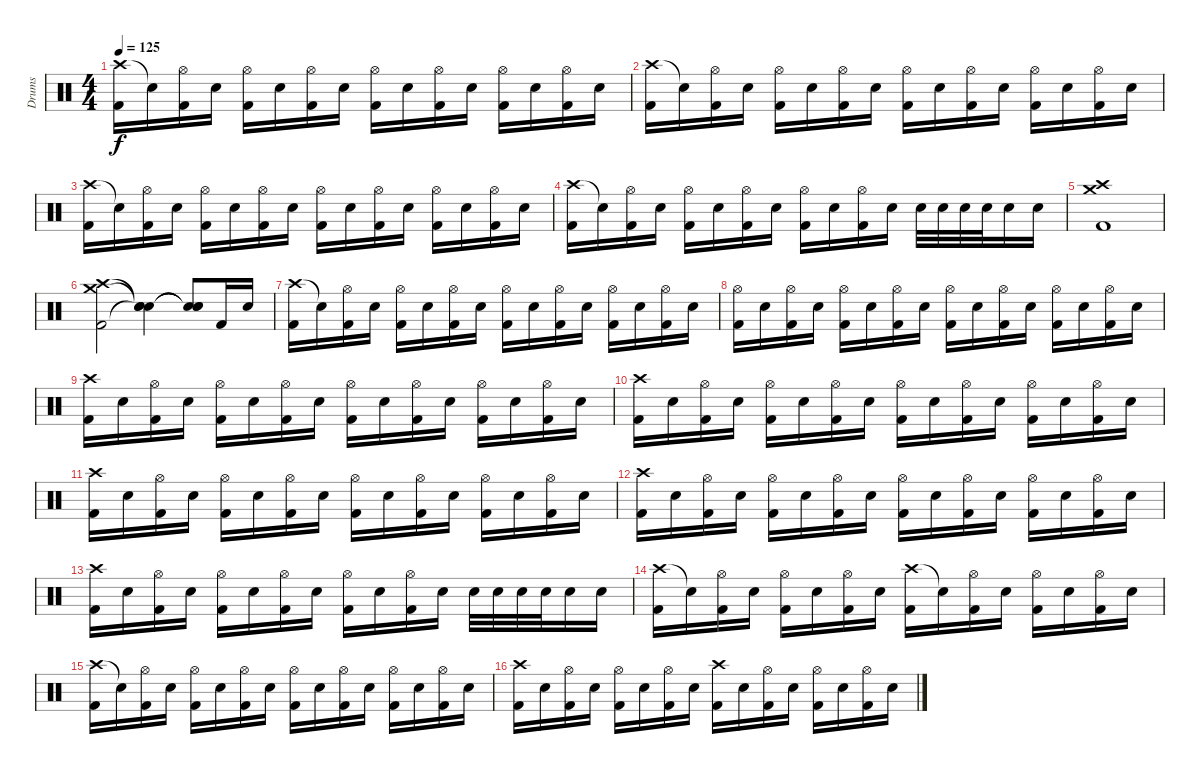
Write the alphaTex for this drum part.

\track ("Drums" "Drums") {instrument percussion}
\staff {score}
\articulation defaults
\ts (4 4)
\tempo 125
\clef neutral
\ks c
("Crash high (hit)" "Kick (hit) 2").16{dy f} "Snare (hit)"{t}.16 ("Hi-Hat (open)" "Kick (hit) 2").16 "Electric Snare (hit)".16 ("Hi-Hat (open)" "Kick (hit) 2").16 "Electric Snare (hit)".16 ("Hi-Hat (open)" "Kick (hit) 2").16 "Electric Snare (hit)".16 ("Hi-Hat (open)" "Kick (hit) 2").16 "Electric Snare (hit)".16 ("Hi-Hat (open)" "Kick (hit) 2").16 "Electric Snare (hit)".16 ("Hi-Hat (open)" "Kick (hit) 2").16 "Electric Snare (hit)".16 ("Hi-Hat (open)" "Kick (hit) 2").16 "Electric Snare (hit)".16 |
("Crash high (hit)" "Kick (hit) 2").16 "Snare (hit)"{t}.16 ("Hi-Hat (open)" "Kick (hit) 2").16 "Electric Snare (hit)".16 ("Hi-Hat (open)" "Kick (hit) 2").16 "Electric Snare (hit)".16 ("Hi-Hat (open)" "Kick (hit) 2").16 "Electric Snare (hit)".16 ("Hi-Hat (open)" "Kick (hit) 2").16 "Electric Snare (hit)".16 ("Hi-Hat (open)" "Kick (hit) 2").16 "Electric Snare (hit)".16 ("Hi-Hat (open)" "Kick (hit) 2").16 "Electric Snare (hit)".16 ("Hi-Hat (open)" "Kick (hit) 2").16 "Electric Snare (hit)".16 |
("Crash high (hit)" "Kick (hit) 2").16 "Snare (hit)"{t}.16 ("Hi-Hat (open)" "Kick (hit) 2").16 "Electric Snare (hit)".16 ("Hi-Hat (open)" "Kick (hit) 2").16 "Electric Snare (hit)".16 ("Hi-Hat (open)" "Kick (hit) 2").16 "Electric Snare (hit)".16 ("Hi-Hat (open)" "Kick (hit) 2").16 "Electric Snare (hit)".16 ("Hi-Hat (open)" "Kick (hit) 2").16 "Electric Snare (hit)".16 ("Hi-Hat (open)" "Kick (hit) 2").16 "Electric Snare (hit)".16 ("Hi-Hat (open)" "Kick (hit) 2").16 "Electric Snare (hit)".16 |
("Crash high (hit)" "Kick (hit) 2").16 "Snare (hit)"{t}.16 ("Hi-Hat (open)" "Kick (hit) 2").16 "Electric Snare (hit)".16 ("Hi-Hat (open)" "Kick (hit) 2").16 "Electric Snare (hit)".16 ("Hi-Hat (open)" "Kick (hit) 2").16 "Electric Snare (hit)".16 ("Hi-Hat (open)" "Kick (hit) 2").16 "Electric Snare (hit)".16 ("Hi-Hat (open)" "Kick (hit) 2").16 "Electric Snare (hit)".16 "Electric Snare (hit)".32 "Electric Snare (hit)".32 "Electric Snare (hit)".32 "Electric Snare (hit)".32 "Electric Snare (hit)".16 "Electric Snare (hit)".16 |
("Crash medium (hit)" "Crash high (hit)" "Kick (hit) 2").1 |
("Crash medium (hit)" "Crash high (hit)" "Kick (hit) 2").2 ("Snare (hit)"{t} "Snare (hit)"{t} "Snare (hit)"{t}).4 ("Snare (hit)"{t} "Snare (hit)"{t} "Snare (hit)"{t}).8 "Kick (hit) 2".16 "Electric Snare (hit)".16 |
("Crash high (hit)" "Kick (hit) 2").16 "Snare (hit)"{t}.16 ("Hi-Hat (open)" "Kick (hit) 2").16 "Electric Snare (hit)".16 ("Hi-Hat (open)" "Kick (hit) 2").16 "Electric Snare (hit)".16 ("Hi-Hat (open)" "Kick (hit) 2").16 "Electric Snare (hit)".16 ("Hi-Hat (open)" "Kick (hit) 2").16 "Electric Snare (hit)".16 ("Hi-Hat (open)" "Kick (hit) 2").16 "Electric Snare (hit)".16 ("Hi-Hat (open)" "Kick (hit) 2").16 "Electric Snare (hit)".16 ("Hi-Hat (open)" "Kick (hit) 2").16 "Electric Snare (hit)".16 |
("Hi-Hat (open)" "Kick (hit) 2").16 "Electric Snare (hit)".16 ("Hi-Hat (open)" "Kick (hit) 2").16 "Electric Snare (hit)".16 ("Hi-Hat (open)" "Kick (hit) 2").16 "Electric Snare (hit)".16 ("Hi-Hat (open)" "Kick (hit) 2").16 "Electric Snare (hit)".16 ("Hi-Hat (open)" "Kick (hit) 2").16 "Electric Snare (hit)".16 ("Hi-Hat (open)" "Kick (hit) 2").16 "Electric Snare (hit)".16 ("Hi-Hat (open)" "Kick (hit) 2").16 "Electric Snare (hit)".16 ("Hi-Hat (open)" "Kick (hit) 2").16 "Electric Snare (hit)".16 |
("Crash high (hit)" "Kick (hit) 2").16 "Electric Snare (hit)".16 ("Hi-Hat (open)" "Kick (hit) 2").16 "Electric Snare (hit)".16 ("Hi-Hat (open)" "Kick (hit) 2").16 "Electric Snare (hit)".16 ("Hi-Hat (open)" "Kick (hit) 2").16 "Electric Snare (hit)".16 ("Hi-Hat (open)" "Kick (hit) 2").16 "Electric Snare (hit)".16 ("Hi-Hat (open)" "Kick (hit) 2").16 "Electric Snare (hit)".16 ("Hi-Hat (open)" "Kick (hit) 2").16 "Electric Snare (hit)".16 ("Hi-Hat (open)" "Kick (hit) 2").16 "Electric Snare (hit)".16 |
("Crash high (hit)" "Kick (hit) 2").16 "Electric Snare (hit)".16 ("Hi-Hat (open)" "Kick (hit) 2").16 "Electric Snare (hit)".16 ("Hi-Hat (open)" "Kick (hit) 2").16 "Electric Snare (hit)".16 ("Hi-Hat (open)" "Kick (hit) 2").16 "Electric Snare (hit)".16 ("Hi-Hat (open)" "Kick (hit) 2").16 "Electric Snare (hit)".16 ("Hi-Hat (open)" "Kick (hit) 2").16 "Electric Snare (hit)".16 ("Hi-Hat (open)" "Kick (hit) 2").16 "Electric Snare (hit)".16 ("Hi-Hat (open)" "Kick (hit) 2").16 "Electric Snare (hit)".16 |
("Crash high (hit)" "Kick (hit) 2").16 "Electric Snare (hit)".16 ("Hi-Hat (open)" "Kick (hit) 2").16 "Electric Snare (hit)".16 ("Hi-Hat (open)" "Kick (hit) 2").16 "Electric Snare (hit)".16 ("Hi-Hat (open)" "Kick (hit) 2").16 "Electric Snare (hit)".16 ("Hi-Hat (open)" "Kick (hit) 2").16 "Electric Snare (hit)".16 ("Hi-Hat (open)" "Kick (hit) 2").16 "Electric Snare (hit)".16 ("Hi-Hat (open)" "Kick (hit) 2").16 "Electric Snare (hit)".16 ("Hi-Hat (open)" "Kick (hit) 2").16 "Electric Snare (hit)".16 |
("Crash high (hit)" "Kick (hit) 2").16 "Electric Snare (hit)".16 ("Hi-Hat (open)" "Kick (hit) 2").16 "Electric Snare (hit)".16 ("Hi-Hat (open)" "Kick (hit) 2").16 "Electric Snare (hit)".16 ("Hi-Hat (open)" "Kick (hit) 2").16 "Electric Snare (hit)".16 ("Hi-Hat (open)" "Kick (hit) 2").16 "Electric Snare (hit)".16 ("Hi-Hat (open)" "Kick (hit) 2").16 "Electric Snare (hit)".16 ("Hi-Hat (open)" "Kick (hit) 2").16 "Electric Snare (hit)".16 ("Hi-Hat (open)" "Kick (hit) 2").16 "Electric Snare (hit)".16 |
("Crash high (hit)" "Kick (hit) 2").16 "Electric Snare (hit)".16 ("Hi-Hat (open)" "Kick (hit) 2").16 "Electric Snare (hit)".16 ("Hi-Hat (open)" "Kick (hit) 2").16 "Electric Snare (hit)".16 ("Hi-Hat (open)" "Kick (hit) 2").16 "Electric Snare (hit)".16 ("Hi-Hat (open)" "Kick (hit) 2").16 "Electric Snare (hit)".16 ("Hi-Hat (open)" "Kick (hit) 2").16 "Electric Snare (hit)".16 "Electric Snare (hit)".32 "Electric Snare (hit)".32 "Electric Snare (hit)".32 "Electric Snare (hit)".32 "Electric Snare (hit)".16 "Electric Snare (hit)".16 |
("Crash high (hit)" "Kick (hit) 2").16 "Snare (hit)"{t}.16 ("Hi-Hat (open)" "Kick (hit) 2").16 "Electric Snare (hit)".16 ("Hi-Hat (open)" "Kick (hit) 2").16 "Electric Snare (hit)".16 ("Hi-Hat (open)" "Kick (hit) 2").16 "Electric Snare (hit)".16 ("Crash high (hit)" "Kick (hit) 2").16 "Snare (hit)"{t}.16 ("Hi-Hat (open)" "Kick (hit) 2").16 "Electric Snare (hit)".16 ("Hi-Hat (open)" "Kick (hit) 2").16 "Electric Snare (hit)".16 ("Hi-Hat (open)" "Kick (hit) 2").16 "Electric Snare (hit)".16 |
("Crash high (hit)" "Kick (hit) 2").16 "Snare (hit)"{t}.16 ("Hi-Hat (open)" "Kick (hit) 2").16 "Electric Snare (hit)".16 ("Hi-Hat (open)" "Kick (hit) 2").16 "Electric Snare (hit)".16 ("Hi-Hat (open)" "Kick (hit) 2").16 "Electric Snare (hit)".16 ("Hi-Hat (open)" "Kick (hit) 2").16 "Electric Snare (hit)".16 ("Hi-Hat (open)" "Kick (hit) 2").16 "Electric Snare (hit)".16 ("Hi-Hat (open)" "Kick (hit) 2").16 "Electric Snare (hit)".16 ("Hi-Hat (open)" "Kick (hit) 2").16 "Electric Snare (hit)".16 |
("Crash high (hit)" "Kick (hit) 2").16 "Electric Snare (hit)".16 ("Hi-Hat (open)" "Kick (hit) 2").16 "Electric Snare (hit)".16 ("Hi-Hat (open)" "Kick (hit) 2").16 "Electric Snare (hit)".16 ("Hi-Hat (open)" "Kick (hit) 2").16 "Electric Snare (hit)".16 ("Crash high (hit)" "Kick (hit) 2").16 "Electric Snare (hit)".16 ("Hi-Hat (open)" "Kick (hit) 2").16 "Electric Snare (hit)".16 ("Hi-Hat (open)" "Kick (hit) 2").16 "Electric Snare (hit)".16 ("Hi-Hat (open)" "Kick (hit) 2").16 "Electric Snare (hit)".16
